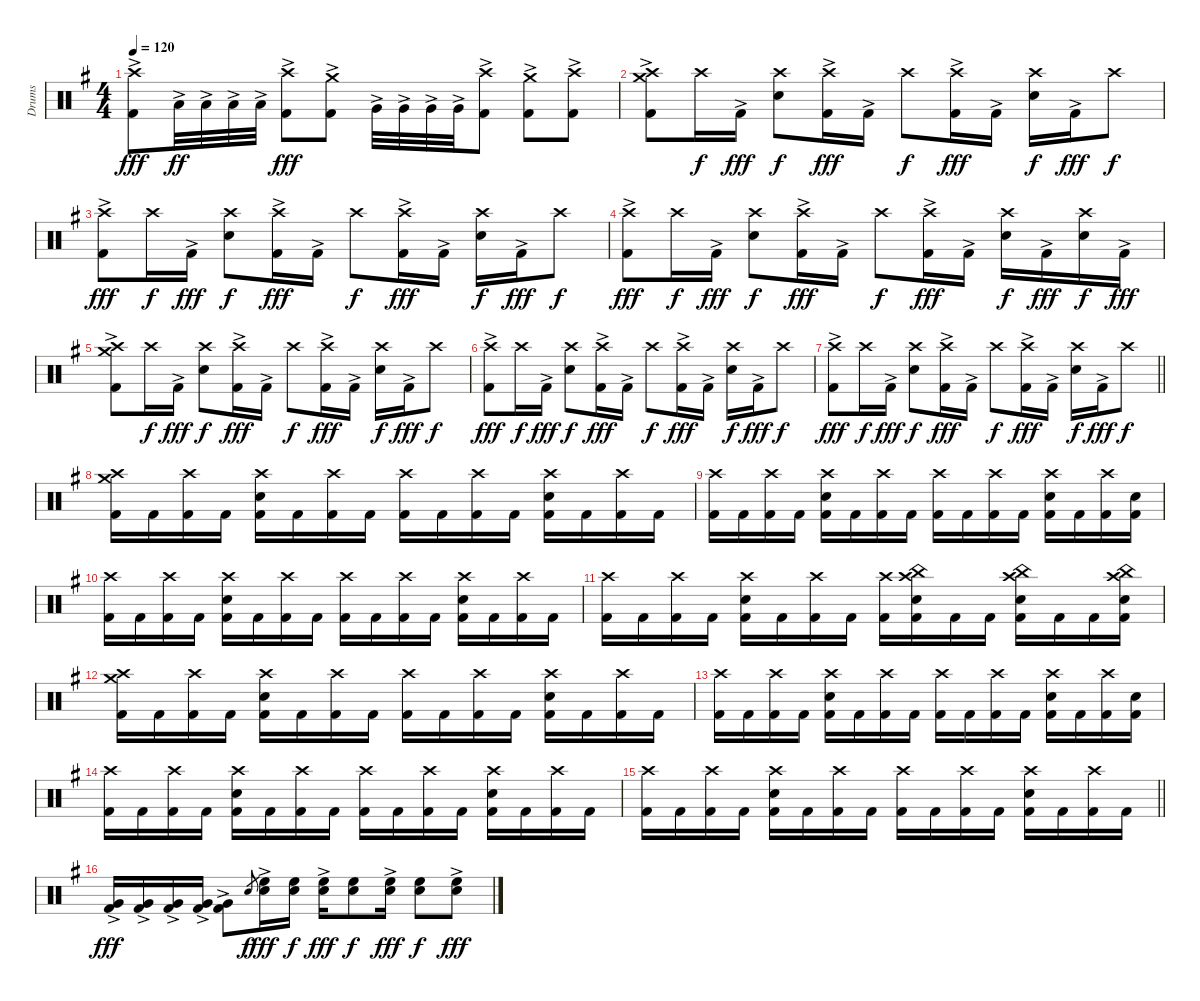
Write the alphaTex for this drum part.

\track ("Drums" "Drums") {instrument percussion}
\staff {score}
\articulation defaults
\ts (4 4)
\tempo 120
\clef neutral
\ks eminor
("Crash high (hit)" "Kick (hit) 2"{ac}).8{dy fff} "Low Tom (hit)"{ac}.32{dy ff} "Low Tom (hit)"{ac}.32 "Low Tom (hit)"{ac}.32 "Low Tom (hit)"{ac}.32 ("Crash high (hit)" "Kick (hit) 2"{ac}).8{dy fff} ("Crash medium (hit)" "Kick (hit) 2"{ac}).8 "Very Low Tom (hit)"{ac}.32 "Very Low Tom (hit)"{ac}.32 "Very Low Tom (hit)"{ac}.32 "Very Low Tom (hit)"{ac}.32 ("Crash high (hit)" "Kick (hit) 2"{ac}).8 ("Crash medium (hit)" "Kick (hit) 2"{ac}).8 ("Crash high (hit)" "Kick (hit) 2"{ac}).8 |
("Crash high (hit)" "Crash medium (hit)" "Kick (hit) 2"{ac}).8 "Crash high (hit)".16{dy f} "Kick (hit) 2"{ac}.16{dy fff} ("Crash high (hit)" "Snare (hit) 2").8{dy f} ("Crash high (hit)" "Kick (hit) 2"{ac}).16{dy fff} "Kick (hit) 2"{ac}.16 "Crash high (hit)".8{dy f} ("Crash high (hit)" "Kick (hit) 2"{ac}).16{dy fff} "Kick (hit) 2"{ac}.16 ("Crash high (hit)" "Snare (hit) 2").16{dy f} "Kick (hit) 2"{ac}.16{dy fff} "Crash high (hit)".8{dy f} |
("Crash high (hit)" "Kick (hit) 2"{ac}).8{dy fff} "Crash high (hit)".16{dy f} "Kick (hit) 2"{ac}.16{dy fff} ("Crash high (hit)" "Snare (hit) 2").8{dy f} ("Crash high (hit)" "Kick (hit) 2"{ac}).16{dy fff} "Kick (hit) 2"{ac}.16 "Crash high (hit)".8{dy f} ("Crash high (hit)" "Kick (hit) 2"{ac}).16{dy fff} "Kick (hit) 2"{ac}.16 ("Crash high (hit)" "Snare (hit) 2").16{dy f} "Kick (hit) 2"{ac}.16{dy fff} "Crash high (hit)".8{dy f} |
("Crash high (hit)" "Kick (hit) 2"{ac}).8{dy fff} "Crash high (hit)".16{dy f} "Kick (hit) 2"{ac}.16{dy fff} ("Crash high (hit)" "Snare (hit) 2").8{dy f} ("Crash high (hit)" "Kick (hit) 2"{ac}).16{dy fff} "Kick (hit) 2"{ac}.16 "Crash high (hit)".8{dy f} ("Crash high (hit)" "Kick (hit) 2"{ac}).16{dy fff} "Kick (hit) 2"{ac}.16 ("Crash high (hit)" "Snare (hit) 2").16{dy f} "Kick (hit) 2"{ac}.16{dy fff} ("Crash high (hit)" "Snare (hit) 2").16{dy f} "Kick (hit) 2"{ac}.16{dy fff} |
("Crash high (hit)" "Crash medium (hit)" "Kick (hit) 2"{ac}).8 "Crash high (hit)".16{dy f} "Kick (hit) 2"{ac}.16{dy fff} ("Crash high (hit)" "Snare (hit) 2").8{dy f} ("Crash high (hit)" "Kick (hit) 2"{ac}).16{dy fff} "Kick (hit) 2"{ac}.16 "Crash high (hit)".8{dy f} ("Crash high (hit)" "Kick (hit) 2"{ac}).16{dy fff} "Kick (hit) 2"{ac}.16 ("Crash high (hit)" "Snare (hit) 2").16{dy f} "Kick (hit) 2"{ac}.16{dy fff} "Crash high (hit)".8{dy f} |
("Crash high (hit)" "Kick (hit) 2"{ac}).8{dy fff} "Crash high (hit)".16{dy f} "Kick (hit) 2"{ac}.16{dy fff} ("Crash high (hit)" "Snare (hit) 2").8{dy f} ("Crash high (hit)" "Kick (hit) 2"{ac}).16{dy fff} "Kick (hit) 2"{ac}.16 "Crash high (hit)".8{dy f} ("Crash high (hit)" "Kick (hit) 2"{ac}).16{dy fff} "Kick (hit) 2"{ac}.16 ("Crash high (hit)" "Snare (hit) 2").16{dy f} "Kick (hit) 2"{ac}.16{dy fff} "Crash high (hit)".8{dy f} |
\barLineRight lightlight
("Crash high (hit)" "Kick (hit) 2"{ac}).8{dy fff} "Crash high (hit)".16{dy f} "Kick (hit) 2"{ac}.16{dy fff} ("Crash high (hit)" "Snare (hit) 2").8{dy f} ("Crash high (hit)" "Kick (hit) 2"{ac}).16{dy fff} "Kick (hit) 2"{ac}.16 "Crash high (hit)".8{dy f} ("Crash high (hit)" "Kick (hit) 2"{ac}).16{dy fff} "Kick (hit) 2"{ac}.16 ("Crash high (hit)" "Snare (hit) 2").16{dy f} "Kick (hit) 2"{ac}.16{dy fff} "Crash high (hit)".8{dy f} |
("Crash high (hit)" "Crash medium (hit)" "Kick (hit) 2").16 "Kick (hit) 2".16 ("Crash high (hit)" "Kick (hit) 2").16 "Kick (hit) 2".16 ("Crash high (hit)" "Snare (hit) 2" "Kick (hit) 2").16 "Kick (hit) 2".16 ("Crash high (hit)" "Kick (hit) 2").16 "Kick (hit) 2".16 ("Crash high (hit)" "Kick (hit) 2").16 "Kick (hit) 2".16 ("Crash high (hit)" "Kick (hit) 2").16 "Kick (hit) 2".16 ("Crash high (hit)" "Snare (hit) 2" "Kick (hit) 2").16 "Kick (hit) 2".16 ("Crash high (hit)" "Kick (hit) 2").16 "Kick (hit) 2".16 |
("Crash high (hit)" "Kick (hit) 2").16 "Kick (hit) 2".16 ("Crash high (hit)" "Kick (hit) 2").16 "Kick (hit) 2".16 ("Crash high (hit)" "Snare (hit) 2" "Kick (hit) 2").16 "Kick (hit) 2".16 ("Crash high (hit)" "Kick (hit) 2").16 "Kick (hit) 2".16 ("Crash high (hit)" "Kick (hit) 2").16 "Kick (hit) 2".16 ("Crash high (hit)" "Kick (hit) 2").16 "Kick (hit) 2".16 ("Crash high (hit)" "Snare (hit) 2" "Kick (hit) 2").16 "Kick (hit) 2".16 ("Crash high (hit)" "Kick (hit) 2").16 ("Snare (hit) 2" "Kick (hit) 2").16 |
("Crash high (hit)" "Kick (hit) 2").16 "Kick (hit) 2".16 ("Crash high (hit)" "Kick (hit) 2").16 "Kick (hit) 2".16 ("Crash high (hit)" "Snare (hit) 2" "Kick (hit) 2").16 "Kick (hit) 2".16 ("Crash high (hit)" "Kick (hit) 2").16 "Kick (hit) 2".16 ("Crash high (hit)" "Kick (hit) 2").16 "Kick (hit) 2".16 ("Crash high (hit)" "Kick (hit) 2").16 "Kick (hit) 2".16 ("Crash high (hit)" "Snare (hit) 2" "Kick (hit) 2").16 "Kick (hit) 2".16 ("Crash high (hit)" "Kick (hit) 2").16 "Kick (hit) 2".16 |
("Crash high (hit)" "Kick (hit) 2").16 "Kick (hit) 2".16 ("Crash high (hit)" "Kick (hit) 2").16 "Kick (hit) 2".16 ("Crash high (hit)" "Snare (hit) 2" "Kick (hit) 2").16 "Kick (hit) 2".16 ("Crash high (hit)" "Kick (hit) 2").16 "Kick (hit) 2".16 ("Crash high (hit)" "Kick (hit) 2").16 ("China (hit)" "Crash high (hit)" "Snare (hit) 2" "Kick (hit) 2").16 "Kick (hit) 2".16 "Kick (hit) 2".16 ("China (hit)" "Crash high (hit)" "Snare (hit) 2" "Kick (hit) 2").16 "Kick (hit) 2".16 "Kick (hit) 2".16 ("China (hit)" "Crash high (hit)" "Snare (hit) 2" "Kick (hit) 2").16 |
("Crash high (hit)" "Crash medium (hit)" "Kick (hit) 2").16 "Kick (hit) 2".16 ("Crash high (hit)" "Kick (hit) 2").16 "Kick (hit) 2".16 ("Crash high (hit)" "Snare (hit) 2" "Kick (hit) 2").16 "Kick (hit) 2".16 ("Crash high (hit)" "Kick (hit) 2").16 "Kick (hit) 2".16 ("Crash high (hit)" "Kick (hit) 2").16 "Kick (hit) 2".16 ("Crash high (hit)" "Kick (hit) 2").16 "Kick (hit) 2".16 ("Crash high (hit)" "Snare (hit) 2" "Kick (hit) 2").16 "Kick (hit) 2".16 ("Crash high (hit)" "Kick (hit) 2").16 "Kick (hit) 2".16 |
("Crash high (hit)" "Kick (hit) 2").16 "Kick (hit) 2".16 ("Crash high (hit)" "Kick (hit) 2").16 "Kick (hit) 2".16 ("Crash high (hit)" "Snare (hit) 2" "Kick (hit) 2").16 "Kick (hit) 2".16 ("Crash high (hit)" "Kick (hit) 2").16 "Kick (hit) 2".16 ("Crash high (hit)" "Kick (hit) 2").16 "Kick (hit) 2".16 ("Crash high (hit)" "Kick (hit) 2").16 "Kick (hit) 2".16 ("Crash high (hit)" "Snare (hit) 2" "Kick (hit) 2").16 "Kick (hit) 2".16 ("Crash high (hit)" "Kick (hit) 2").16 ("Snare (hit) 2" "Kick (hit) 2").16 |
("Crash high (hit)" "Kick (hit) 2").16 "Kick (hit) 2".16 ("Crash high (hit)" "Kick (hit) 2").16 "Kick (hit) 2".16 ("Crash high (hit)" "Snare (hit) 2" "Kick (hit) 2").16 "Kick (hit) 2".16 ("Crash high (hit)" "Kick (hit) 2").16 "Kick (hit) 2".16 ("Crash high (hit)" "Kick (hit) 2").16 "Kick (hit) 2".16 ("Crash high (hit)" "Kick (hit) 2").16 "Kick (hit) 2".16 ("Crash high (hit)" "Snare (hit) 2" "Kick (hit) 2").16 "Kick (hit) 2".16 ("Crash high (hit)" "Kick (hit) 2").16 "Kick (hit) 2".16 |
\barLineRight lightlight
("Crash high (hit)" "Kick (hit) 2").16 "Kick (hit) 2".16 ("Crash high (hit)" "Kick (hit) 2").16 "Kick (hit) 2".16 ("Crash high (hit)" "Snare (hit) 2" "Kick (hit) 2").16 "Kick (hit) 2".16 ("Crash high (hit)" "Kick (hit) 2").16 "Kick (hit) 2".16 ("Crash high (hit)" "Kick (hit) 2").16 "Kick (hit) 2".16 ("Crash high (hit)" "Kick (hit) 2").16 "Kick (hit) 2".16 ("Crash high (hit)" "Snare (hit) 2" "Kick (hit) 2").16 "Kick (hit) 2".16 ("Crash high (hit)" "Kick (hit) 2").16 "Kick (hit) 2".16 |
("Very Low Tom (hit)"{ac} "Kick (hit) 2").16{dy fff} ("Very Low Tom (hit)"{ac} "Kick (hit) 2").16 ("Very Low Tom (hit)"{ac} "Kick (hit) 2").16 ("Very Low Tom (hit)"{ac} "Kick (hit) 2").16 ("Very Low Tom (hit)"{ac} "Kick (hit) 2").8 "Snare (hit) 2".8{gr dy f} ("High Floor Tom (hit)" "Snare (hit) 2"{ac}).16{dy fff} ("High Floor Tom (hit)" "Snare (hit) 2").16{dy f} ("High Floor Tom (hit)" "Snare (hit) 2"{ac}).16{dy fff} ("High Floor Tom (hit)" "Snare (hit) 2").8{dy f} ("High Floor Tom (hit)" "Snare (hit) 2"{ac}).16{dy fff} ("High Floor Tom (hit)" "Snare (hit) 2").8{dy f} ("High Floor Tom (hit)" "Snare (hit) 2"{ac}).8{dy fff}
